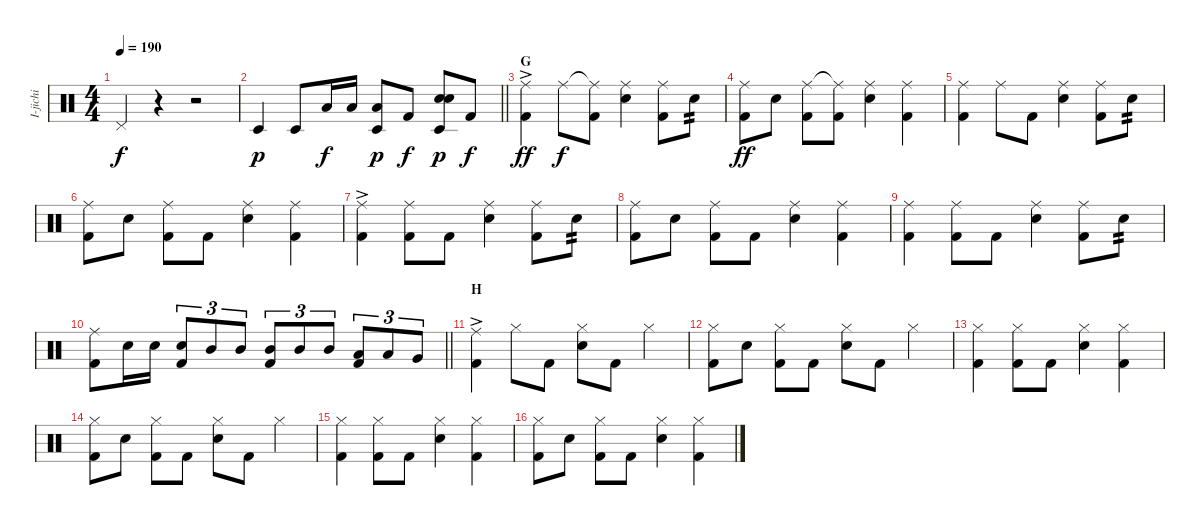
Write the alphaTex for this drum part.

\track ("I-jichi" "I-jichi") {instrument percussion}
\staff {score}
\articulation defaults
\ts (4 4)
\tempo 190
\clef neutral
\ks c "Pedal Hi-Hat (hit)".4{dy f}
r.4 r.2 |
\barLineRight lightlight "Timbale low (hit)".4{dy p} "Timbale low (hit)".8 "Low Tom (hit)".16{dy f} "Low Tom (hit)".16
("Low Tom (hit)" "Timbale low (hit)").8{dy p} "Kick (hit) 2".8{dy f} ("Snare (hit) 2" "Snare (hit) 2" "Timbale low (hit)").8{dy p} "Kick (hit) 2".8{dy f} |
\section ("" "G")
("Ride (middle)"{ac} "Kick (hit) 2").4{dy ff} "Ride (middle)".8{dy f} ("Ride (middle)"{t} "Kick (hit) 2").8 ("Ride (middle)" "Snare (hit) 2").4 ("Ride (middle)" "Kick (hit) 2").8 "Snare (hit) 2".8{tp 2} |
("Ride (middle)" "Kick (hit) 2").8{dy ff} "Snare (hit) 2".8 ("Ride (middle)" "Kick (hit) 2").8 ("Ride (middle)"{t} "Kick (hit) 2").8 ("Ride (middle)" "Snare (hit) 2").4 ("Ride (middle)" "Kick (hit) 2").4 |
("Ride (middle)" "Kick (hit) 2").4 "Ride (middle)".8 "Kick (hit) 2".8 ("Ride (middle)" "Snare (hit) 2").4 ("Ride (middle)" "Kick (hit) 2").8 "Snare (hit) 2".8{tp 2} |
("Ride (middle)" "Kick (hit) 2").8 "Snare (hit) 2".8 ("Ride (middle)" "Kick (hit) 2").8 "Kick (hit) 2".8 ("Ride (middle)" "Snare (hit) 2").4 ("Ride (middle)" "Kick (hit) 2").4 |
("Ride (middle)"{ac} "Kick (hit) 2").4 ("Ride (middle)" "Kick (hit) 2").8 "Kick (hit) 2".8 ("Ride (middle)" "Snare (hit) 2").4 ("Ride (middle)" "Kick (hit) 2").8 "Snare (hit) 2".8{tp 2} |
("Ride (middle)" "Kick (hit) 2").8 "Snare (hit) 2".8 ("Ride (middle)" "Kick (hit) 2").8 "Kick (hit) 2".8 ("Ride (middle)" "Snare (hit) 2").4 ("Ride (middle)" "Kick (hit) 2").4 |
("Ride (middle)" "Kick (hit) 2").4 ("Ride (middle)" "Kick (hit) 2").8 "Kick (hit) 2".8 ("Ride (middle)" "Snare (hit) 2").4 ("Ride (middle)" "Kick (hit) 2").8 "Snare (hit) 2".8{tp 2} |
\barLineRight lightlight
("Ride (middle)" "Kick (hit) 2").8 "Snare (hit) 2".16 "Snare (hit) 2".16 ("Snare (hit) 2" "Kick (hit) 2").8{tu (3 2)} "Mid Tom (hit)".8{tu (3 2)} "Mid Tom (hit)".8{tu (3 2)} ("Mid Tom (hit)" "Kick (hit) 2").8{tu (3 2)} "Mid Tom (hit)".8{tu (3 2)} "Mid Tom (hit)".8{tu (3 2)} ("Low Tom (hit)" "Kick (hit) 2").8{tu (3 2)} "Low Tom (hit)".8{tu (3 2)} "Very Low Tom (hit)".8{tu (3 2)} |
\section ("" "H")
("Ride (middle)"{ac} "Kick (hit) 2").4 "Hi-Hat (closed)".8 "Kick (hit) 2".8 ("Hi-Hat (closed)" "Snare (hit) 2").8 "Kick (hit) 2".8 "Hi-Hat (closed)".4 |
("Hi-Hat (closed)" "Kick (hit) 2").8 "Snare (hit) 2".8 ("Hi-Hat (closed)" "Kick (hit) 2").8 "Kick (hit) 2".8 ("Hi-Hat (closed)" "Snare (hit) 2").8 "Kick (hit) 2".8 "Hi-Hat (closed)".4 |
("Hi-Hat (closed)" "Kick (hit) 2").4 ("Hi-Hat (closed)" "Kick (hit) 2").8 "Kick (hit) 2".8 ("Hi-Hat (closed)" "Snare (hit) 2").4 ("Hi-Hat (closed)" "Kick (hit) 2").4 |
("Hi-Hat (closed)" "Kick (hit) 2").8 "Snare (hit) 2".8 ("Hi-Hat (closed)" "Kick (hit) 2").8 "Kick (hit) 2".8 ("Hi-Hat (closed)" "Snare (hit) 2").8 "Kick (hit) 2".8 "Hi-Hat (closed)".4 |
("Hi-Hat (closed)" "Kick (hit) 2").4 ("Hi-Hat (closed)" "Kick (hit) 2").8 "Kick (hit) 2".8 ("Hi-Hat (closed)" "Snare (hit) 2").4 ("Hi-Hat (closed)" "Kick (hit) 2").4 |
("Hi-Hat (closed)" "Kick (hit) 2").8 "Snare (hit) 2".8 ("Hi-Hat (closed)" "Kick (hit) 2").8 "Kick (hit) 2".8 ("Hi-Hat (closed)" "Snare (hit) 2").4 ("Hi-Hat (closed)" "Kick (hit) 2").4
